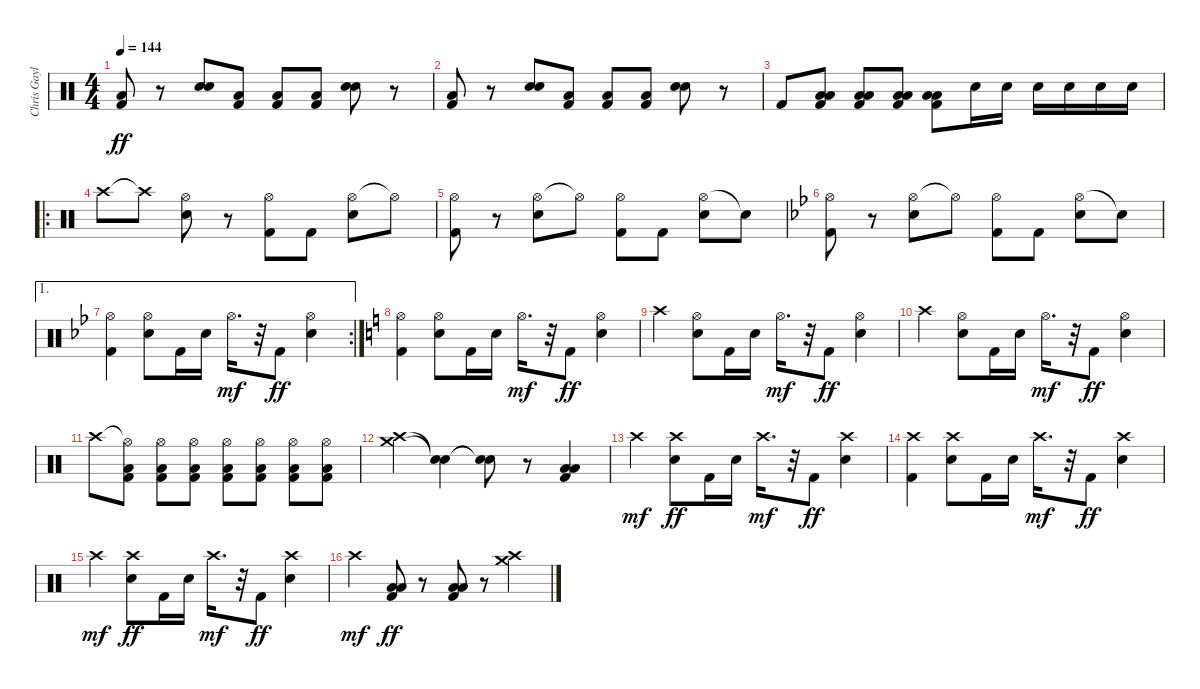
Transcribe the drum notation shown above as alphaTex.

\track ("Chris Gaylor" "Chris Gayl") {instrument percussion}
\staff {score}
\articulation defaults
\ts (4 4)
\tempo 144
\clef neutral
\ks c
("Low Floor Tom (hit)" "Kick (hit) 2").8{dy ff} r.8 ("Snare (hit) 2" "Snare (hit) 2").8 ("Low Floor Tom (hit)" "Kick (hit) 2").8 ("Low Floor Tom (hit)" "Kick (hit) 2").8 ("Low Tom (hit)" "Kick (hit) 2").8 ("Snare (hit) 2" "Snare (hit) 2").8 r.8 |
("Low Floor Tom (hit)" "Kick (hit) 2").8 r.8 ("Snare (hit) 2" "Snare (hit) 2").8 ("Low Floor Tom (hit)" "Kick (hit) 2").8 ("Low Floor Tom (hit)" "Kick (hit) 2").8 ("Low Tom (hit)" "Kick (hit) 2").8 ("Snare (hit) 2" "Snare (hit) 2").8 r.8 |
"Kick (hit) 2".8 ("Low Floor Tom (hit)" "Low Tom (hit)" "Kick (hit) 2").8 ("Low Floor Tom (hit)" "Low Tom (hit)" "Kick (hit) 2").8 ("Low Floor Tom (hit)" "Low Tom (hit)" "Kick (hit) 2").8 ("Low Floor Tom (hit)" "Low Tom (hit)" "Kick (hit) 2").8 "Snare (hit) 2".16 "Snare (hit) 2".16 "Snare (hit) 2".16 "Snare (hit) 2".16 "Snare (hit) 2".16 "Snare (hit) 2".16 |
\ro "Crash high (hit)".8{balance 8} "Crash high (hit)"{t}.8
("Hi-Hat (open)" "Snare (hit) 2").8 r.8 ("Hi-Hat (open)" "Kick (hit) 2").8 "Kick (hit) 2".8 ("Hi-Hat (open)" "Snare (hit) 2").8 "Hi-Hat (open)"{t}.8 |
("Hi-Hat (open)" "Kick (hit) 2").8 r.8 ("Hi-Hat (open)" "Snare (hit) 2").8 "Hi-Hat (open)"{t}.8 ("Hi-Hat (open)" "Kick (hit) 2").8 "Kick (hit) 2".8 ("Hi-Hat (open)" "Snare (hit) 2").8 "Snare (hit)"{t}.8 |
\ks bb
("Hi-Hat (open)" "Kick (hit) 2").8 r.8 ("Hi-Hat (open)" "Snare (hit) 2").8 "Hi-Hat (open)"{t}.8 ("Hi-Hat (open)" "Kick (hit) 2").8 "Kick (hit) 2".8 ("Hi-Hat (open)" "Snare (hit) 2").8 "Snare (hit)"{t}.8 |
\ae 1
\rc 2
("Hi-Hat (open)" "Kick (hit) 2").4 ("Hi-Hat (open)" "Snare (hit) 2").8 "Kick (hit) 2".16 "Snare (hit) 2".16 "Hi-Hat (open)".16{d dy mf} r.32 "Kick (hit) 2".8{dy ff} ("Hi-Hat (open)" "Snare (hit) 2").4 |
\ks c
("Hi-Hat (open)" "Kick (hit) 2").4 ("Hi-Hat (open)" "Snare (hit) 2").8 "Kick (hit) 2".16 "Snare (hit) 2".16 "Hi-Hat (open)".16{d dy mf} r.32 "Kick (hit) 2".8{dy ff} ("Hi-Hat (open)" "Snare (hit) 2").4 |
"Crash high (hit)".4 ("Hi-Hat (open)" "Snare (hit) 2").8 "Kick (hit) 2".16 "Snare (hit) 2".16 "Hi-Hat (open)".16{d dy mf} r.32 "Kick (hit) 2".8{dy ff} ("Hi-Hat (open)" "Snare (hit) 2").4 |
"Crash high (hit)".4 ("Hi-Hat (open)" "Snare (hit) 2").8 "Kick (hit) 2".16 "Snare (hit) 2".16 "Hi-Hat (open)".16{d dy mf} r.32 "Kick (hit) 2".8{dy ff} ("Hi-Hat (open)" "Snare (hit) 2").4 |
"Crash high (hit)".8 ("Hi-Hat (open)"{t} "Low Tom (hit)" "Kick (hit) 2").8 ("Hi-Hat (open)" "Low Tom (hit)" "Kick (hit) 2").8 ("Hi-Hat (open)" "Low Tom (hit)" "Kick (hit) 2").8 ("Hi-Hat (open)" "Low Tom (hit)" "Kick (hit) 2").8 ("Hi-Hat (open)" "Low Tom (hit)" "Kick (hit) 2").8 ("Hi-Hat (open)" "Low Tom (hit)" "Kick (hit) 2").8 ("Hi-Hat (open)" "Low Tom (hit)" "Kick (hit) 2").8 |
("Crash high (hit)" "Crash medium (hit)").4 ("Snare (hit)"{t} "Snare (hit)"{t}).4 ("Snare (hit)"{t} "Snare (hit)"{t}).8 r.8 ("Low Floor Tom (hit)" "Low Tom (hit)" "Kick (hit) 2").4 |
"Crash high (hit)".4{dy mf} ("Crash high (hit)" "Snare (hit) 2").8{dy ff} "Kick (hit) 2".16 "Snare (hit) 2".16 "Crash high (hit)".16{d dy mf} r.32 "Kick (hit) 2".8{dy ff} ("Crash high (hit)" "Snare (hit) 2").4 |
("Crash high (hit)" "Kick (hit) 2").4 ("Crash high (hit)" "Snare (hit) 2").8 "Kick (hit) 2".16 "Snare (hit) 2".16 "Crash high (hit)".16{d dy mf} r.32 "Kick (hit) 2".8{dy ff} ("Crash high (hit)" "Snare (hit) 2").4 |
"Crash high (hit)".4{dy mf} ("Crash high (hit)" "Snare (hit) 2").8{dy ff} "Kick (hit) 2".16 "Snare (hit) 2".16 "Crash high (hit)".16{d dy mf} r.32 "Kick (hit) 2".8{dy ff} ("Crash high (hit)" "Snare (hit) 2").4 |
"Crash high (hit)".4{dy mf} ("Low Tom (hit)" "Low Floor Tom (hit)" "Kick (hit) 2").8{dy ff} r.8 ("Low Tom (hit)" "Low Floor Tom (hit)" "Kick (hit) 2").8 r.8 ("Crash high (hit)" "Crash medium (hit)").4
